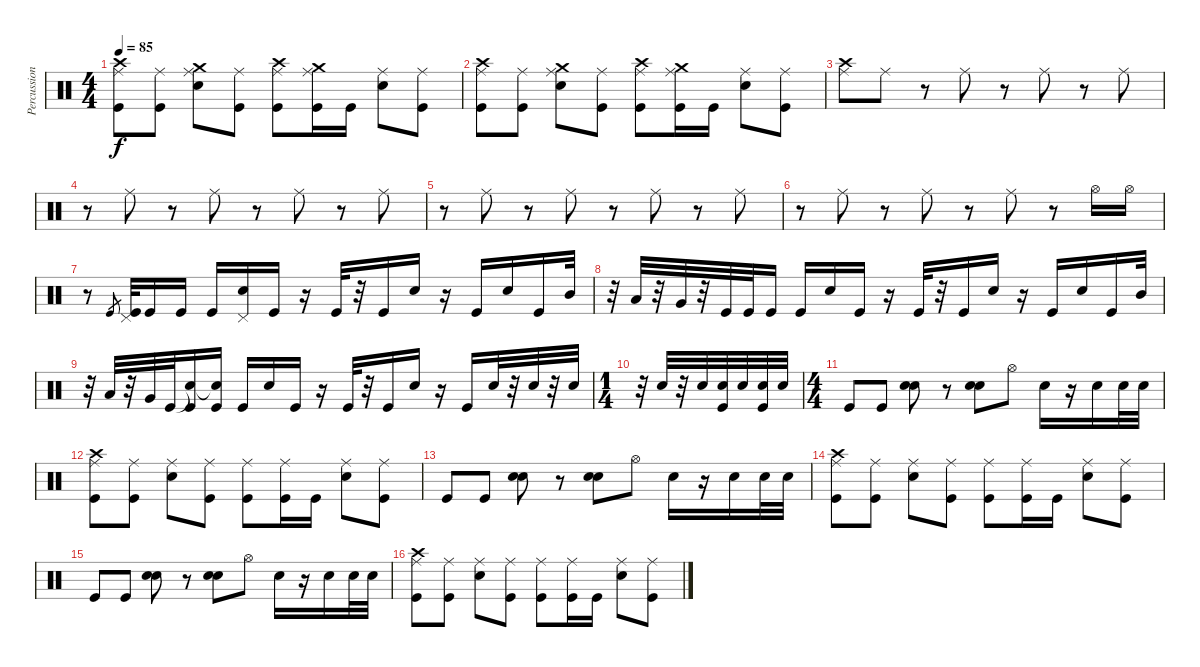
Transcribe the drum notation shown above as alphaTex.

\track ("Percussions" "Percussion") {instrument percussion}
\staff {score}
\articulation defaults
\ts (4 4)
\tempo 85
\clef neutral
\ks c
("Ride (middle)" "Crash high (hit)" "Kick (hit)").8{dy f} ("Ride (middle)" "Kick (hit)").8 ("Ride (middle)" "Crash medium (hit)" "Electric Snare (hit)").8 ("Ride (middle)" "Kick (hit)").8 ("Ride (middle)" "Crash high (hit)" "Kick (hit)").8 ("Ride (middle)" "Crash medium (hit)" "Kick (hit)").16 "Kick (hit)".16 ("Ride (middle)" "Electric Snare (hit)").8 ("Ride (middle)" "Kick (hit)").8 |
("Ride (middle)" "Crash high (hit)" "Kick (hit)").8 ("Ride (middle)" "Kick (hit)").8 ("Ride (middle)" "Crash medium (hit)" "Electric Snare (hit)").8 ("Ride (middle)" "Kick (hit)").8 ("Ride (middle)" "Crash high (hit)" "Kick (hit)").8 ("Ride (middle)" "Crash medium (hit)" "Kick (hit)").16 "Kick (hit)".16 ("Ride (middle)" "Electric Snare (hit)").8 ("Ride (middle)" "Kick (hit)").8 |
("Crash high (hit)" "Ride (middle)").8 "Ride (middle)".8 r.8 "Ride (middle)".8 r.8 "Ride (middle)".8 r.8 "Ride (middle)".8 |
r.8 "Ride (middle)".8 r.8 "Ride (middle)".8 r.8 "Ride (middle)".8 r.8 "Ride (middle)".8 |
r.8 "Ride (middle)".8 r.8 "Ride (middle)".8 r.8 "Ride (middle)".8 r.8 "Ride (middle)".8 |
r.8 "Ride (middle)".8 r.8 "Ride (middle)".8 r.8 "Ride (middle)".8 r.8 "Hi-Hat (open)".16 "Hi-Hat (open)".16 |
r.8 "Kick (hit)".8{gr} ("Pedal Hi-Hat (hit)" "Kick (hit)").32 "Kick (hit)".16 "Kick (hit)".16 "Kick (hit)".16 ("Pedal Hi-Hat (hit)" "Electric Snare (hit)").16 "Kick (hit)".16 r.16 "Kick (hit)".32 r.32 "Kick (hit)".16 "Snare (hit) 2".16 r.16 "Kick (hit)".16 "Snare (hit) 2".16 "Kick (hit)".16 "Mid Tom (hit)".32 |
r.32 "Low Tom (hit)".32 r.32 "Very Low Tom (hit)".32 r.32 "Kick (hit)".32 "Kick (hit)".32 "Kick (hit)".16 "Kick (hit)".16 "Electric Snare (hit)".16 "Kick (hit)".16 r.16 "Kick (hit)".32 r.32 "Kick (hit)".16 "Snare (hit) 2".16 r.16 "Kick (hit)".16 "Snare (hit) 2".16 "Kick (hit)".16 "Mid Tom (hit)".32 |
r.32 "Low Tom (hit)".32 r.32 "Very Low Tom (hit)".32 "Kick (hit)".32 ("Snare (hit)"{t} "Kick (hit)").16 ("Snare (hit)"{t} "Kick (hit)").16 "Kick (hit)".16 "Electric Snare (hit)".16 "Kick (hit)".16 r.16 "Kick (hit)".32 r.32 "Kick (hit)".16 "Snare (hit) 2".16 r.16 "Kick (hit)".16 "Electric Snare (hit)".32 r.32 "Electric Snare (hit)".32 r.32 "Electric Snare (hit)".32 |
\ts (1 4)
r.32 "Electric Snare (hit)".32 r.32 "Electric Snare (hit)".32 ("Electric Snare (hit)" "Kick (hit)").32 "Electric Snare (hit)".32 ("Electric Snare (hit)" "Kick (hit)").32 "Electric Snare (hit)".32 |
\ts (4 4)
"Kick (hit)".8 "Kick (hit)".8 ("Electric Snare (hit)" "Snare (hit) 2").8{bu 120} r.8 ("Electric Snare (hit)" "Snare (hit) 2").8{bu 120} "Hi-Hat (open)".8 "Electric Snare (hit)".16 r.16 "Electric Snare (hit)".16 "Electric Snare (hit)".32 "Electric Snare (hit)".32 |
("Ride (middle)" "Crash high (hit)" "Kick (hit)").8 ("Ride (middle)" "Kick (hit)").8 ("Ride (middle)" "Electric Snare (hit)").8 ("Ride (middle)" "Kick (hit)").8 ("Ride (middle)" "Kick (hit)").8 ("Ride (middle)" "Kick (hit)").16 "Kick (hit)".16 ("Ride (middle)" "Electric Snare (hit)").8 ("Ride (middle)" "Kick (hit)").8 |
"Kick (hit)".8 "Kick (hit)".8 ("Electric Snare (hit)" "Snare (hit) 2").8{bu 120} r.8 ("Electric Snare (hit)" "Snare (hit) 2").8{bu 120} "Hi-Hat (open)".8 "Electric Snare (hit)".16 r.16 "Electric Snare (hit)".16 "Electric Snare (hit)".32 "Electric Snare (hit)".32 |
("Ride (middle)" "Crash high (hit)" "Kick (hit)").8 ("Ride (middle)" "Kick (hit)").8 ("Ride (middle)" "Electric Snare (hit)").8 ("Ride (middle)" "Kick (hit)").8 ("Ride (middle)" "Kick (hit)").8 ("Ride (middle)" "Kick (hit)").16 "Kick (hit)".16 ("Ride (middle)" "Electric Snare (hit)").8 ("Ride (middle)" "Kick (hit)").8 |
"Kick (hit)".8 "Kick (hit)".8 ("Electric Snare (hit)" "Snare (hit) 2").8{bu 120} r.8 ("Electric Snare (hit)" "Snare (hit) 2").8{bu 120} "Hi-Hat (open)".8 "Electric Snare (hit)".16 r.16 "Electric Snare (hit)".16 "Electric Snare (hit)".32 "Electric Snare (hit)".32 |
("Ride (middle)" "Crash high (hit)" "Kick (hit)").8 ("Ride (middle)" "Kick (hit)").8 ("Ride (middle)" "Electric Snare (hit)").8 ("Ride (middle)" "Kick (hit)").8 ("Ride (middle)" "Kick (hit)").8 ("Ride (middle)" "Kick (hit)").16 "Kick (hit)".16 ("Ride (middle)" "Electric Snare (hit)").8 ("Ride (middle)" "Kick (hit)").8
